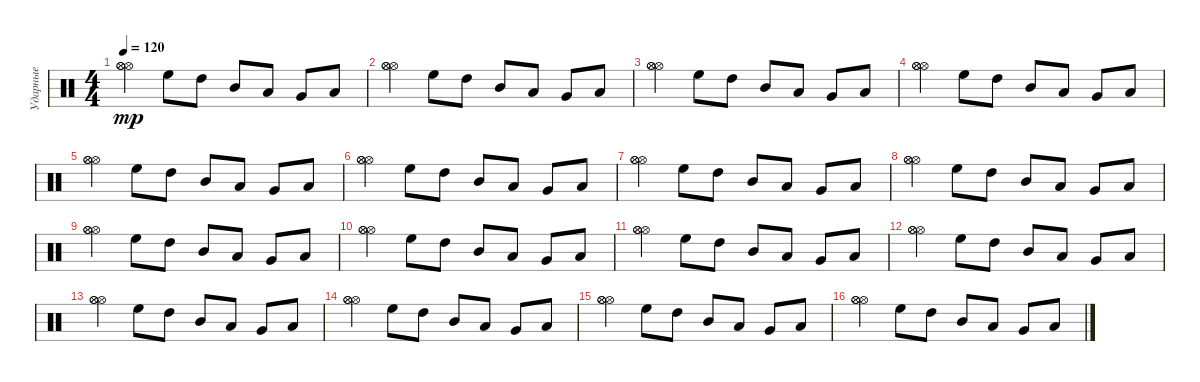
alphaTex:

\track ("Ударные" "Ударные") {instrument percussion}
\staff {score}
\articulation defaults
\ts (4 4)
\tempo 120
\clef neutral
\ks c
("Hi-Hat (open)" "Hi-Hat (open)" "Hi-Hat (open)").4{dy mp} "High Floor Tom (hit)".8 "High Tom (hit)".8 "Mid Tom (hit)".8 "Low Tom (hit)".8 "Very Low Tom (hit)".8 "Low Floor Tom (hit)".8 |
("Hi-Hat (open)" "Hi-Hat (open)" "Hi-Hat (open)").4 "High Floor Tom (hit)".8 "High Tom (hit)".8 "Mid Tom (hit)".8 "Low Tom (hit)".8 "Very Low Tom (hit)".8 "Low Floor Tom (hit)".8 |
("Hi-Hat (open)" "Hi-Hat (open)" "Hi-Hat (open)").4 "High Floor Tom (hit)".8 "High Tom (hit)".8 "Mid Tom (hit)".8 "Low Tom (hit)".8 "Very Low Tom (hit)".8 "Low Floor Tom (hit)".8 |
("Hi-Hat (open)" "Hi-Hat (open)" "Hi-Hat (open)").4 "High Floor Tom (hit)".8 "High Tom (hit)".8 "Mid Tom (hit)".8 "Low Tom (hit)".8 "Very Low Tom (hit)".8 "Low Floor Tom (hit)".8 |
("Hi-Hat (open)" "Hi-Hat (open)" "Hi-Hat (open)").4 "High Floor Tom (hit)".8 "High Tom (hit)".8 "Mid Tom (hit)".8 "Low Tom (hit)".8 "Very Low Tom (hit)".8 "Low Floor Tom (hit)".8 |
("Hi-Hat (open)" "Hi-Hat (open)" "Hi-Hat (open)").4 "High Floor Tom (hit)".8 "High Tom (hit)".8 "Mid Tom (hit)".8 "Low Tom (hit)".8 "Very Low Tom (hit)".8 "Low Floor Tom (hit)".8 |
("Hi-Hat (open)" "Hi-Hat (open)" "Hi-Hat (open)").4 "High Floor Tom (hit)".8 "High Tom (hit)".8 "Mid Tom (hit)".8 "Low Tom (hit)".8 "Very Low Tom (hit)".8 "Low Floor Tom (hit)".8 |
("Hi-Hat (open)" "Hi-Hat (open)" "Hi-Hat (open)").4 "High Floor Tom (hit)".8 "High Tom (hit)".8 "Mid Tom (hit)".8 "Low Tom (hit)".8 "Very Low Tom (hit)".8 "Low Floor Tom (hit)".8 |
("Hi-Hat (open)" "Hi-Hat (open)" "Hi-Hat (open)").4 "High Floor Tom (hit)".8 "High Tom (hit)".8 "Mid Tom (hit)".8 "Low Tom (hit)".8 "Very Low Tom (hit)".8 "Low Floor Tom (hit)".8 |
("Hi-Hat (open)" "Hi-Hat (open)" "Hi-Hat (open)").4 "High Floor Tom (hit)".8 "High Tom (hit)".8 "Mid Tom (hit)".8 "Low Tom (hit)".8 "Very Low Tom (hit)".8 "Low Floor Tom (hit)".8 |
("Hi-Hat (open)" "Hi-Hat (open)" "Hi-Hat (open)").4 "High Floor Tom (hit)".8 "High Tom (hit)".8 "Mid Tom (hit)".8 "Low Tom (hit)".8 "Very Low Tom (hit)".8 "Low Floor Tom (hit)".8 |
("Hi-Hat (open)" "Hi-Hat (open)" "Hi-Hat (open)").4 "High Floor Tom (hit)".8 "High Tom (hit)".8 "Mid Tom (hit)".8 "Low Tom (hit)".8 "Very Low Tom (hit)".8 "Low Floor Tom (hit)".8 |
("Hi-Hat (open)" "Hi-Hat (open)" "Hi-Hat (open)").4 "High Floor Tom (hit)".8 "High Tom (hit)".8 "Mid Tom (hit)".8 "Low Tom (hit)".8 "Very Low Tom (hit)".8 "Low Floor Tom (hit)".8 |
("Hi-Hat (open)" "Hi-Hat (open)" "Hi-Hat (open)").4 "High Floor Tom (hit)".8 "High Tom (hit)".8 "Mid Tom (hit)".8 "Low Tom (hit)".8 "Very Low Tom (hit)".8 "Low Floor Tom (hit)".8 |
("Hi-Hat (open)" "Hi-Hat (open)" "Hi-Hat (open)").4 "High Floor Tom (hit)".8 "High Tom (hit)".8 "Mid Tom (hit)".8 "Low Tom (hit)".8 "Very Low Tom (hit)".8 "Low Floor Tom (hit)".8 |
("Hi-Hat (open)" "Hi-Hat (open)" "Hi-Hat (open)").4 "High Floor Tom (hit)".8 "High Tom (hit)".8 "Mid Tom (hit)".8 "Low Tom (hit)".8 "Very Low Tom (hit)".8 "Low Floor Tom (hit)".8
